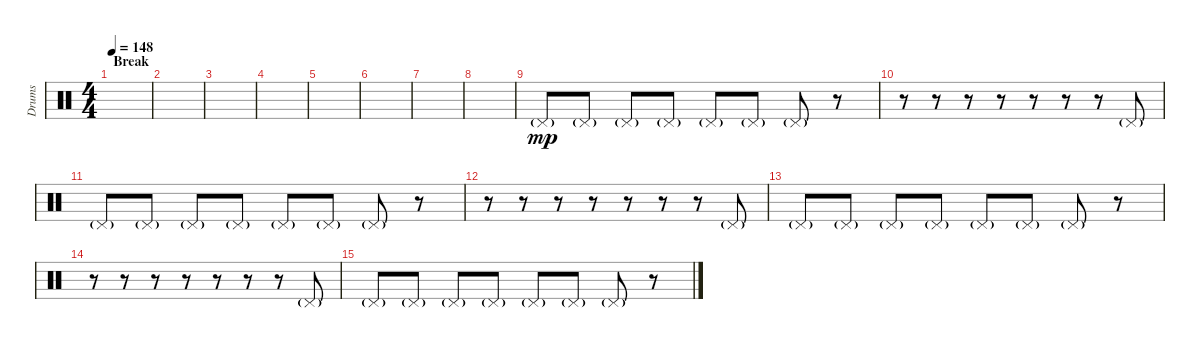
\track ("Drums" "Drums") {instrument percussion}
\staff {score}
\articulation defaults
\ts (4 4)
\section ("" "Break")
\tempo 148
\clef neutral
\ks c
|
|
|
|
|
|
|
|
"Pedal Hi-Hat (hit)"{g}.8{dy mp} "Pedal Hi-Hat (hit)"{g}.8 "Pedal Hi-Hat (hit)"{g}.8 "Pedal Hi-Hat (hit)"{g}.8 "Pedal Hi-Hat (hit)"{g}.8 "Pedal Hi-Hat (hit)"{g}.8 "Pedal Hi-Hat (hit)"{g}.8 r.8 |
r.8 r.8 r.8 r.8 r.8 r.8 r.8 "Pedal Hi-Hat (hit)"{g}.8 |
"Pedal Hi-Hat (hit)"{g}.8 "Pedal Hi-Hat (hit)"{g}.8 "Pedal Hi-Hat (hit)"{g}.8 "Pedal Hi-Hat (hit)"{g}.8 "Pedal Hi-Hat (hit)"{g}.8 "Pedal Hi-Hat (hit)"{g}.8 "Pedal Hi-Hat (hit)"{g}.8 r.8 |
r.8 r.8 r.8 r.8 r.8 r.8 r.8 "Pedal Hi-Hat (hit)"{g}.8 |
"Pedal Hi-Hat (hit)"{g}.8 "Pedal Hi-Hat (hit)"{g}.8 "Pedal Hi-Hat (hit)"{g}.8 "Pedal Hi-Hat (hit)"{g}.8 "Pedal Hi-Hat (hit)"{g}.8 "Pedal Hi-Hat (hit)"{g}.8 "Pedal Hi-Hat (hit)"{g}.8 r.8 |
r.8 r.8 r.8 r.8 r.8 r.8 r.8 "Pedal Hi-Hat (hit)"{g}.8 |
"Pedal Hi-Hat (hit)"{g}.8 "Pedal Hi-Hat (hit)"{g}.8 "Pedal Hi-Hat (hit)"{g}.8 "Pedal Hi-Hat (hit)"{g}.8 "Pedal Hi-Hat (hit)"{g}.8 "Pedal Hi-Hat (hit)"{g}.8 "Pedal Hi-Hat (hit)"{g}.8 r.8
